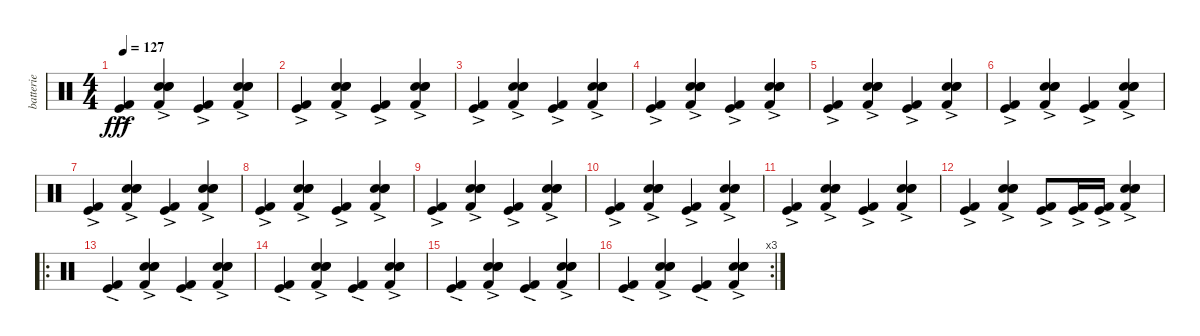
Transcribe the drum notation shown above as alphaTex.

\track ("batterie" "batterie") {instrument percussion}
\staff {score}
\articulation defaults
\ts (4 4)
\tempo 127
\clef neutral
\ks c
("Kick (hit) 2" "Kick (hit)"{ac}).4{dy fff} ("Hand Clap (hit)"{ac} "Kick (hit) 2" "Electric Snare (hit)" "Snare (hit) 2").4 ("Kick (hit) 2" "Kick (hit)"{ac}).4 ("Hand Clap (hit)"{ac} "Kick (hit) 2" "Electric Snare (hit)" "Snare (hit) 2").4 |
("Kick (hit) 2" "Kick (hit)"{ac}).4 ("Hand Clap (hit)"{ac} "Kick (hit) 2" "Electric Snare (hit)" "Snare (hit) 2").4 ("Kick (hit) 2" "Kick (hit)"{ac}).4 ("Hand Clap (hit)"{ac} "Kick (hit) 2" "Electric Snare (hit)" "Snare (hit) 2").4 |
("Kick (hit) 2" "Kick (hit)"{ac}).4 ("Hand Clap (hit)"{ac} "Kick (hit) 2" "Electric Snare (hit)" "Snare (hit) 2").4 ("Kick (hit) 2" "Kick (hit)"{ac}).4 ("Hand Clap (hit)"{ac} "Kick (hit) 2" "Electric Snare (hit)" "Snare (hit) 2").4 |
("Kick (hit) 2" "Kick (hit)"{ac}).4 ("Hand Clap (hit)"{ac} "Kick (hit) 2" "Electric Snare (hit)" "Snare (hit) 2").4 ("Kick (hit) 2" "Kick (hit)"{ac}).4 ("Hand Clap (hit)"{ac} "Kick (hit) 2" "Electric Snare (hit)" "Snare (hit) 2").4 |
("Kick (hit) 2" "Kick (hit)"{ac}).4 ("Hand Clap (hit)"{ac} "Kick (hit) 2" "Electric Snare (hit)" "Snare (hit) 2").4 ("Kick (hit) 2" "Kick (hit)"{ac}).4 ("Hand Clap (hit)"{ac} "Kick (hit) 2" "Electric Snare (hit)" "Snare (hit) 2").4 |
("Kick (hit) 2" "Kick (hit)"{ac}).4 ("Hand Clap (hit)"{ac} "Kick (hit) 2" "Electric Snare (hit)" "Snare (hit) 2").4 ("Kick (hit) 2" "Kick (hit)"{ac}).4 ("Hand Clap (hit)"{ac} "Kick (hit) 2" "Electric Snare (hit)" "Snare (hit) 2").4 |
("Kick (hit) 2" "Kick (hit)"{ac}).4 ("Hand Clap (hit)"{ac} "Kick (hit) 2" "Electric Snare (hit)" "Snare (hit) 2").4 ("Kick (hit) 2" "Kick (hit)"{ac}).4 ("Hand Clap (hit)"{ac} "Kick (hit) 2" "Electric Snare (hit)" "Snare (hit) 2").4 |
("Kick (hit) 2" "Kick (hit)"{ac}).4 ("Hand Clap (hit)"{ac} "Kick (hit) 2" "Electric Snare (hit)" "Snare (hit) 2").4 ("Kick (hit) 2" "Kick (hit)"{ac}).4 ("Hand Clap (hit)"{ac} "Kick (hit) 2" "Electric Snare (hit)" "Snare (hit) 2").4 |
("Kick (hit) 2" "Kick (hit)"{ac}).4 ("Hand Clap (hit)"{ac} "Kick (hit) 2" "Electric Snare (hit)" "Snare (hit) 2").4 ("Kick (hit) 2" "Kick (hit)"{ac}).4 ("Hand Clap (hit)"{ac} "Kick (hit) 2" "Electric Snare (hit)" "Snare (hit) 2").4 |
("Kick (hit) 2" "Kick (hit)"{ac}).4 ("Hand Clap (hit)"{ac} "Kick (hit) 2" "Electric Snare (hit)" "Snare (hit) 2").4 ("Kick (hit) 2" "Kick (hit)"{ac}).4 ("Hand Clap (hit)"{ac} "Kick (hit) 2" "Electric Snare (hit)" "Snare (hit) 2").4 |
("Kick (hit) 2" "Kick (hit)"{ac}).4 ("Hand Clap (hit)"{ac} "Kick (hit) 2" "Electric Snare (hit)" "Snare (hit) 2").4 ("Kick (hit) 2" "Kick (hit)"{ac}).4 ("Hand Clap (hit)"{ac} "Kick (hit) 2" "Electric Snare (hit)" "Snare (hit) 2").4 |
("Kick (hit) 2" "Kick (hit)"{ac}).4 ("Hand Clap (hit)"{ac} "Kick (hit) 2" "Electric Snare (hit)" "Snare (hit) 2").4 ("Kick (hit) 2" "Kick (hit)"{ac}).8 ("Kick (hit) 2" "Kick (hit)"{ac}).16 ("Kick (hit) 2" "Kick (hit)"{ac}).16 ("Hand Clap (hit)"{ac} "Kick (hit) 2" "Electric Snare (hit)" "Snare (hit) 2").4 |
\ro
("Kick (hit) 2" "Kick (hit)"{ac}).4 ("Hand Clap (hit)"{ac} "Kick (hit) 2" "Electric Snare (hit)" "Snare (hit) 2").4 ("Kick (hit) 2" "Kick (hit)"{ac}).4 ("Hand Clap (hit)"{ac} "Kick (hit) 2" "Electric Snare (hit)" "Snare (hit) 2").4 |
("Kick (hit) 2" "Kick (hit)"{ac}).4 ("Hand Clap (hit)"{ac} "Kick (hit) 2" "Electric Snare (hit)" "Snare (hit) 2").4 ("Kick (hit) 2" "Kick (hit)"{ac}).4 ("Hand Clap (hit)"{ac} "Kick (hit) 2" "Electric Snare (hit)" "Snare (hit) 2").4 |
("Kick (hit) 2" "Kick (hit)"{ac}).4 ("Hand Clap (hit)"{ac} "Kick (hit) 2" "Electric Snare (hit)" "Snare (hit) 2").4 ("Kick (hit) 2" "Kick (hit)"{ac}).4 ("Hand Clap (hit)"{ac} "Kick (hit) 2" "Electric Snare (hit)" "Snare (hit) 2").4 |
\rc 3
("Kick (hit) 2" "Kick (hit)"{ac}).4 ("Hand Clap (hit)"{ac} "Kick (hit) 2" "Electric Snare (hit)" "Snare (hit) 2").4 ("Kick (hit) 2" "Kick (hit)"{ac}).4 ("Hand Clap (hit)"{ac} "Kick (hit) 2" "Electric Snare (hit)" "Snare (hit) 2").4
